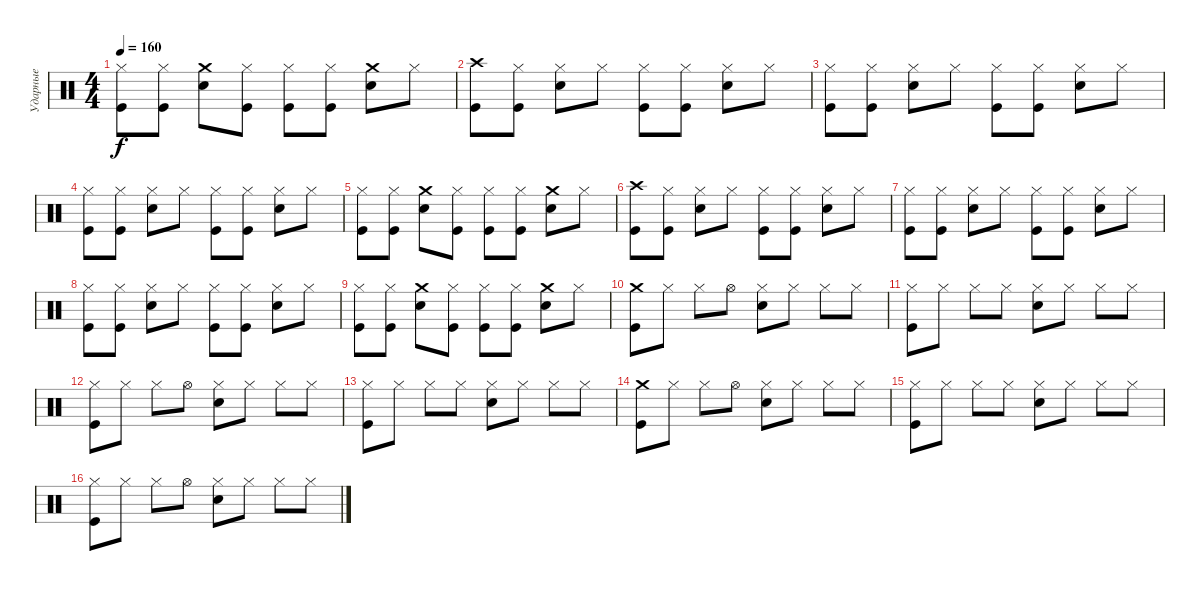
\track ("Ударные" "Ударные") {instrument percussion}
\staff {score}
\articulation defaults
\ts (4 4)
\tempo 160
\clef neutral
\ks c
("Hi-Hat (closed)" "Kick (hit)").8{dy f} ("Hi-Hat (closed)" "Kick (hit)").8 ("Crash medium (hit)" "Snare (hit) 2").8 ("Hi-Hat (closed)" "Kick (hit)").8 ("Hi-Hat (closed)" "Kick (hit)").8 ("Hi-Hat (closed)" "Kick (hit)").8 ("Crash medium (hit)" "Snare (hit) 2").8 "Hi-Hat (closed)".8 |
("Crash high (hit)" "Kick (hit)").8 ("Hi-Hat (closed)" "Kick (hit)").8 ("Hi-Hat (closed)" "Snare (hit) 2").8 "Hi-Hat (closed)".8 ("Hi-Hat (closed)" "Kick (hit)").8 ("Hi-Hat (closed)" "Kick (hit)").8 ("Hi-Hat (closed)" "Snare (hit) 2").8 "Hi-Hat (closed)".8 |
("Hi-Hat (closed)" "Kick (hit)").8 ("Hi-Hat (closed)" "Kick (hit)").8 ("Hi-Hat (closed)" "Snare (hit) 2").8 "Hi-Hat (closed)".8 ("Hi-Hat (closed)" "Kick (hit)").8 ("Hi-Hat (closed)" "Kick (hit)").8 ("Hi-Hat (closed)" "Snare (hit) 2").8 "Hi-Hat (closed)".8 |
("Hi-Hat (closed)" "Kick (hit)").8 ("Hi-Hat (closed)" "Kick (hit)").8 ("Hi-Hat (closed)" "Snare (hit) 2").8 "Hi-Hat (closed)".8 ("Hi-Hat (closed)" "Kick (hit)").8 ("Hi-Hat (closed)" "Kick (hit)").8 ("Hi-Hat (closed)" "Snare (hit) 2").8 "Hi-Hat (closed)".8 |
("Hi-Hat (closed)" "Kick (hit)").8 ("Hi-Hat (closed)" "Kick (hit)").8 ("Crash medium (hit)" "Snare (hit) 2").8 ("Hi-Hat (closed)" "Kick (hit)").8 ("Hi-Hat (closed)" "Kick (hit)").8 ("Hi-Hat (closed)" "Kick (hit)").8 ("Crash medium (hit)" "Snare (hit) 2").8 "Hi-Hat (closed)".8 |
("Crash high (hit)" "Kick (hit)").8 ("Hi-Hat (closed)" "Kick (hit)").8 ("Hi-Hat (closed)" "Snare (hit) 2").8 "Hi-Hat (closed)".8 ("Hi-Hat (closed)" "Kick (hit)").8 ("Hi-Hat (closed)" "Kick (hit)").8 ("Hi-Hat (closed)" "Snare (hit) 2").8 "Hi-Hat (closed)".8 |
("Hi-Hat (closed)" "Kick (hit)").8 ("Hi-Hat (closed)" "Kick (hit)").8 ("Hi-Hat (closed)" "Snare (hit) 2").8 "Hi-Hat (closed)".8 ("Hi-Hat (closed)" "Kick (hit)").8 ("Hi-Hat (closed)" "Kick (hit)").8 ("Hi-Hat (closed)" "Snare (hit) 2").8 "Hi-Hat (closed)".8 |
("Hi-Hat (closed)" "Kick (hit)").8 ("Hi-Hat (closed)" "Kick (hit)").8 ("Hi-Hat (closed)" "Snare (hit) 2").8 "Hi-Hat (closed)".8 ("Hi-Hat (closed)" "Kick (hit)").8 ("Hi-Hat (closed)" "Kick (hit)").8 ("Hi-Hat (closed)" "Snare (hit) 2").8 "Hi-Hat (closed)".8 |
("Hi-Hat (closed)" "Kick (hit)").8 ("Hi-Hat (closed)" "Kick (hit)").8 ("Crash medium (hit)" "Snare (hit) 2").8 ("Hi-Hat (closed)" "Kick (hit)").8 ("Hi-Hat (closed)" "Kick (hit)").8 ("Hi-Hat (closed)" "Kick (hit)").8 ("Crash medium (hit)" "Snare (hit) 2").8 "Hi-Hat (closed)".8 |
("Kick (hit)" "Crash medium (hit)").8 "Hi-Hat (closed)".8 "Hi-Hat (closed)".8 "Hi-Hat (open)".8 ("Hi-Hat (closed)" "Snare (hit) 2").8 "Hi-Hat (closed)".8 "Hi-Hat (closed)".8 "Hi-Hat (closed)".8 |
("Kick (hit)" "Hi-Hat (closed)").8 "Hi-Hat (closed)".8 "Hi-Hat (closed)".8 "Hi-Hat (closed)".8 ("Hi-Hat (closed)" "Snare (hit) 2").8 "Hi-Hat (closed)".8 "Hi-Hat (closed)".8 "Hi-Hat (closed)".8 |
("Kick (hit)" "Hi-Hat (closed)").8 "Hi-Hat (closed)".8 "Hi-Hat (closed)".8 "Hi-Hat (open)".8 ("Hi-Hat (closed)" "Snare (hit) 2").8 "Hi-Hat (closed)".8 "Hi-Hat (closed)".8 "Hi-Hat (closed)".8 |
("Kick (hit)" "Hi-Hat (closed)").8 "Hi-Hat (closed)".8 "Hi-Hat (closed)".8 "Hi-Hat (closed)".8 ("Hi-Hat (closed)" "Snare (hit) 2").8 "Hi-Hat (closed)".8 "Hi-Hat (closed)".8 "Hi-Hat (closed)".8 |
("Kick (hit)" "Crash medium (hit)").8 "Hi-Hat (closed)".8 "Hi-Hat (closed)".8 "Hi-Hat (open)".8 ("Hi-Hat (closed)" "Snare (hit) 2").8 "Hi-Hat (closed)".8 "Hi-Hat (closed)".8 "Hi-Hat (closed)".8 |
("Kick (hit)" "Hi-Hat (closed)").8 "Hi-Hat (closed)".8 "Hi-Hat (closed)".8 "Hi-Hat (closed)".8 ("Hi-Hat (closed)" "Snare (hit) 2").8 "Hi-Hat (closed)".8 "Hi-Hat (closed)".8 "Hi-Hat (closed)".8 |
("Kick (hit)" "Hi-Hat (closed)").8 "Hi-Hat (closed)".8 "Hi-Hat (closed)".8 "Hi-Hat (open)".8 ("Hi-Hat (closed)" "Snare (hit) 2").8 "Hi-Hat (closed)".8 "Hi-Hat (closed)".8 "Hi-Hat (closed)".8
